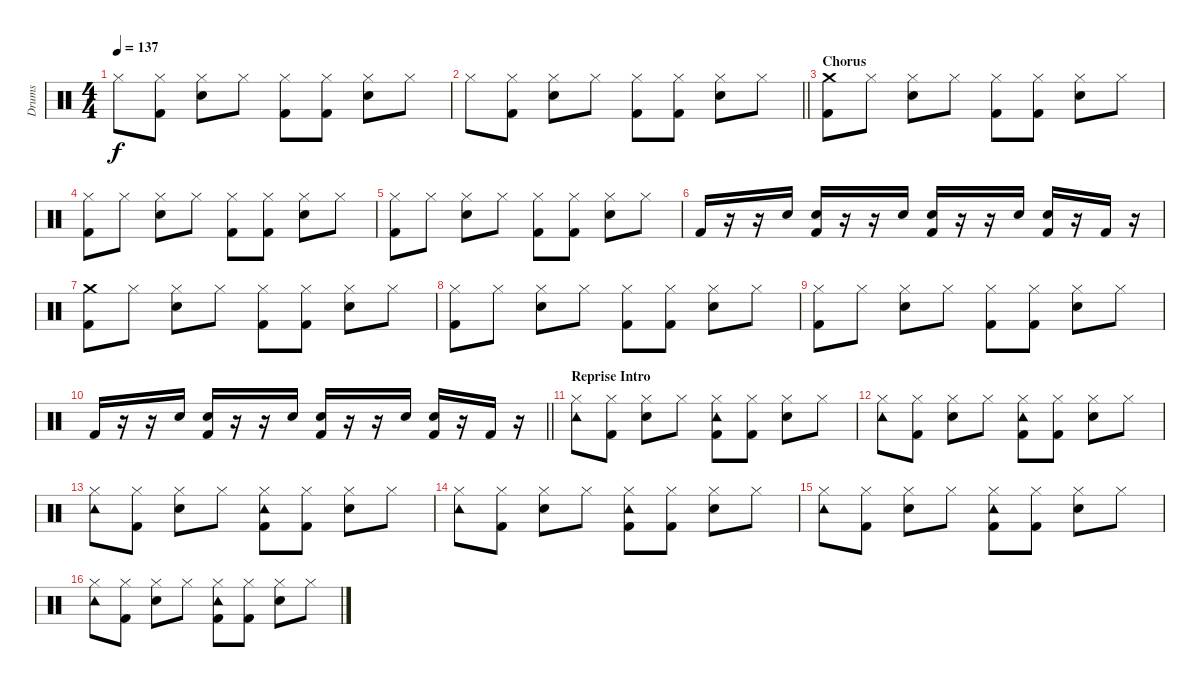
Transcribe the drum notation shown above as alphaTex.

\track ("Drums" "Drums") {instrument percussion}
\staff {score}
\articulation defaults
\ts (4 4)
\tempo 137
\clef neutral
\ks c "Hi-Hat (closed)".8{dy f}
("Hi-Hat (closed)" "Kick (hit) 2").8 ("Hi-Hat (closed)" "Snare (hit) 2").8 "Hi-Hat (closed)".8 ("Hi-Hat (closed)" "Kick (hit) 2").8 ("Hi-Hat (closed)" "Kick (hit) 2").8 ("Hi-Hat (closed)" "Snare (hit) 2").8 "Hi-Hat (closed)".8 |
\barLineRight lightlight "Hi-Hat (closed)".8
("Hi-Hat (closed)" "Kick (hit) 2").8 ("Hi-Hat (closed)" "Snare (hit) 2").8 "Hi-Hat (closed)".8 ("Hi-Hat (closed)" "Kick (hit) 2").8 ("Hi-Hat (closed)" "Kick (hit) 2").8 ("Hi-Hat (closed)" "Snare (hit) 2").8 "Hi-Hat (closed)".8 |
\section ("" "Chorus")
("Crash medium (hit)" "Kick (hit) 2").8 "Hi-Hat (closed)".8 ("Hi-Hat (closed)" "Snare (hit) 2").8 "Hi-Hat (closed)".8 ("Hi-Hat (closed)" "Kick (hit) 2").8 ("Hi-Hat (closed)" "Kick (hit) 2").8 ("Hi-Hat (closed)" "Snare (hit) 2").8 "Hi-Hat (closed)".8 |
("Hi-Hat (closed)" "Kick (hit) 2").8 "Hi-Hat (closed)".8 ("Hi-Hat (closed)" "Snare (hit) 2").8 "Hi-Hat (closed)".8 ("Hi-Hat (closed)" "Kick (hit) 2").8 ("Hi-Hat (closed)" "Kick (hit) 2").8 ("Hi-Hat (closed)" "Snare (hit) 2").8 "Hi-Hat (closed)".8 |
("Hi-Hat (closed)" "Kick (hit) 2").8 "Hi-Hat (closed)".8 ("Hi-Hat (closed)" "Snare (hit) 2").8 "Hi-Hat (closed)".8 ("Hi-Hat (closed)" "Kick (hit) 2").8 ("Hi-Hat (closed)" "Kick (hit) 2").8 ("Hi-Hat (closed)" "Snare (hit) 2").8 "Hi-Hat (closed)".8 |
"Kick (hit) 2".16 r.16 r.16 "Snare (hit) 2".16 ("Snare (hit) 2" "Kick (hit) 2").16 r.16 r.16 "Snare (hit) 2".16 ("Snare (hit) 2" "Kick (hit) 2").16 r.16 r.16 "Snare (hit) 2".16 ("Snare (hit) 2" "Kick (hit) 2").16 r.16 "Kick (hit) 2".16 r.16 |
("Crash medium (hit)" "Kick (hit) 2").8 "Hi-Hat (closed)".8 ("Hi-Hat (closed)" "Snare (hit) 2").8 "Hi-Hat (closed)".8 ("Hi-Hat (closed)" "Kick (hit) 2").8 ("Hi-Hat (closed)" "Kick (hit) 2").8 ("Hi-Hat (closed)" "Snare (hit) 2").8 "Hi-Hat (closed)".8 |
("Hi-Hat (closed)" "Kick (hit) 2").8 "Hi-Hat (closed)".8 ("Hi-Hat (closed)" "Snare (hit) 2").8 "Hi-Hat (closed)".8 ("Hi-Hat (closed)" "Kick (hit) 2").8 ("Hi-Hat (closed)" "Kick (hit) 2").8 ("Hi-Hat (closed)" "Snare (hit) 2").8 "Hi-Hat (closed)".8 |
("Hi-Hat (closed)" "Kick (hit) 2").8 "Hi-Hat (closed)".8 ("Hi-Hat (closed)" "Snare (hit) 2").8 "Hi-Hat (closed)".8 ("Hi-Hat (closed)" "Kick (hit) 2").8 ("Hi-Hat (closed)" "Kick (hit) 2").8 ("Hi-Hat (closed)" "Snare (hit) 2").8 "Hi-Hat (closed)".8 |
\barLineRight lightlight "Kick (hit) 2".16
r.16 r.16 "Snare (hit) 2".16 ("Snare (hit) 2" "Kick (hit) 2").16 r.16 r.16 "Snare (hit) 2".16 ("Snare (hit) 2" "Kick (hit) 2").16 r.16 r.16 "Snare (hit) 2".16 ("Snare (hit) 2" "Kick (hit) 2").16 r.16 "Kick (hit) 2".16 r.16 |
\section ("" "Reprise Intro")
("Hi-Hat (closed)" "Tambourine (hit)").8 ("Hi-Hat (closed)" "Kick (hit) 2").8 ("Hi-Hat (closed)" "Snare (hit) 2").8 "Hi-Hat (closed)".8 ("Hi-Hat (closed)" "Tambourine (hit)" "Kick (hit) 2").8 ("Hi-Hat (closed)" "Kick (hit) 2").8 ("Hi-Hat (closed)" "Snare (hit) 2").8 "Hi-Hat (closed)".8 |
("Hi-Hat (closed)" "Tambourine (hit)").8 ("Hi-Hat (closed)" "Kick (hit) 2").8 ("Hi-Hat (closed)" "Snare (hit) 2").8 "Hi-Hat (closed)".8 ("Hi-Hat (closed)" "Tambourine (hit)" "Kick (hit) 2").8 ("Hi-Hat (closed)" "Kick (hit) 2").8 ("Hi-Hat (closed)" "Snare (hit) 2").8 "Hi-Hat (closed)".8 |
("Hi-Hat (closed)" "Tambourine (hit)").8 ("Hi-Hat (closed)" "Kick (hit) 2").8 ("Hi-Hat (closed)" "Snare (hit) 2").8 "Hi-Hat (closed)".8 ("Hi-Hat (closed)" "Tambourine (hit)" "Kick (hit) 2").8 ("Hi-Hat (closed)" "Kick (hit) 2").8 ("Hi-Hat (closed)" "Snare (hit) 2").8 "Hi-Hat (closed)".8 |
("Hi-Hat (closed)" "Tambourine (hit)").8 ("Hi-Hat (closed)" "Kick (hit) 2").8 ("Hi-Hat (closed)" "Snare (hit) 2").8 "Hi-Hat (closed)".8 ("Hi-Hat (closed)" "Tambourine (hit)" "Kick (hit) 2").8 ("Hi-Hat (closed)" "Kick (hit) 2").8 ("Hi-Hat (closed)" "Snare (hit) 2").8 "Hi-Hat (closed)".8 |
("Hi-Hat (closed)" "Tambourine (hit)").8 ("Hi-Hat (closed)" "Kick (hit) 2").8 ("Hi-Hat (closed)" "Snare (hit) 2").8 "Hi-Hat (closed)".8 ("Hi-Hat (closed)" "Tambourine (hit)" "Kick (hit) 2").8 ("Hi-Hat (closed)" "Kick (hit) 2").8 ("Hi-Hat (closed)" "Snare (hit) 2").8 "Hi-Hat (closed)".8 |
("Hi-Hat (closed)" "Tambourine (hit)").8 ("Hi-Hat (closed)" "Kick (hit) 2").8 ("Hi-Hat (closed)" "Snare (hit) 2").8 "Hi-Hat (closed)".8 ("Hi-Hat (closed)" "Tambourine (hit)" "Kick (hit) 2").8 ("Hi-Hat (closed)" "Kick (hit) 2").8 ("Hi-Hat (closed)" "Snare (hit) 2").8 "Hi-Hat (closed)".8
